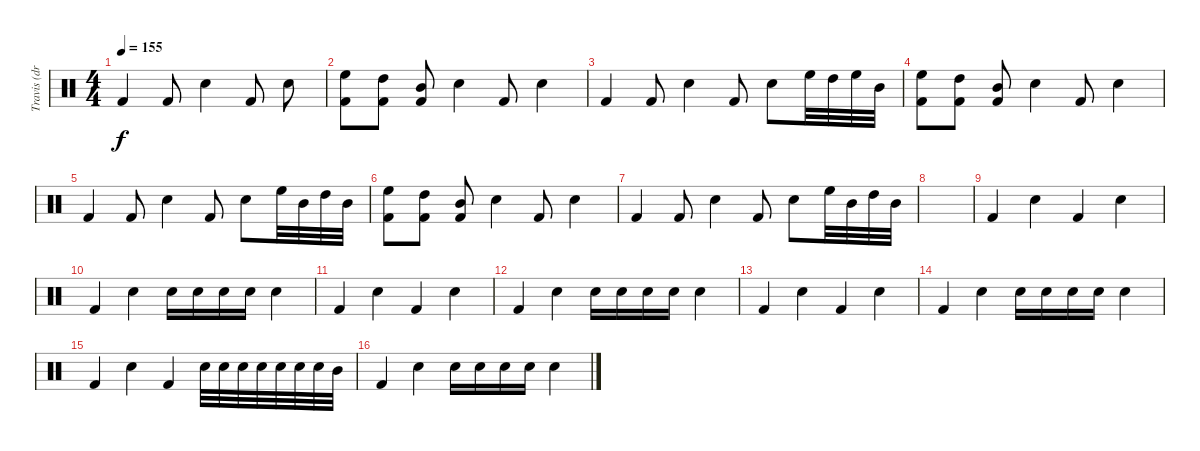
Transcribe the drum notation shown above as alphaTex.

\track ("Travis (drums)" "Travis (dr") {instrument percussion}
\staff {score}
\articulation defaults
\ts (4 4)
\tempo 155
\clef neutral
\ks c "Kick (hit) 2".4{dy f} "Kick (hit) 2".8 "Snare (hit) 2".4 "Kick (hit) 2".8 "Snare (hit) 2".8
|
("High Floor Tom (hit)" "Kick (hit) 2").8 ("High Tom (hit)" "Kick (hit) 2").8 ("Mid Tom (hit)" "Kick (hit) 2").8 "Snare (hit) 2".4 "Kick (hit) 2".8 "Snare (hit) 2".4 |
"Kick (hit) 2".4 "Kick (hit) 2".8 "Snare (hit) 2".4 "Kick (hit) 2".8 "Snare (hit) 2".8 "High Floor Tom (hit)".32 "High Tom (hit)".32 "High Floor Tom (hit)".32 "Mid Tom (hit)".32 |
("High Floor Tom (hit)" "Kick (hit) 2").8 ("High Tom (hit)" "Kick (hit) 2").8 ("Mid Tom (hit)" "Kick (hit) 2").8 "Snare (hit) 2".4 "Kick (hit) 2".8 "Snare (hit) 2".4 |
"Kick (hit) 2".4 "Kick (hit) 2".8 "Snare (hit) 2".4 "Kick (hit) 2".8 "Snare (hit) 2".8 "High Floor Tom (hit)".32 "Mid Tom (hit)".32 "High Tom (hit)".32 "Mid Tom (hit)".32 |
("High Floor Tom (hit)" "Kick (hit) 2").8 ("High Tom (hit)" "Kick (hit) 2").8 ("Mid Tom (hit)" "Kick (hit) 2").8 "Snare (hit) 2".4 "Kick (hit) 2".8 "Snare (hit) 2".4 |
"Kick (hit) 2".4 "Kick (hit) 2".8 "Snare (hit) 2".4 "Kick (hit) 2".8 "Snare (hit) 2".8 "High Floor Tom (hit)".32 "Mid Tom (hit)".32 "High Tom (hit)".32 "Mid Tom (hit)".32 |
|
"Kick (hit) 2".4 "Snare (hit) 2".4 "Kick (hit) 2".4 "Snare (hit) 2".4 |
"Kick (hit) 2".4 "Snare (hit) 2".4 "Snare (hit) 2".16 "Snare (hit) 2".16 "Snare (hit) 2".16 "Snare (hit) 2".16 "Snare (hit) 2".4 |
"Kick (hit) 2".4 "Snare (hit) 2".4 "Kick (hit) 2".4 "Snare (hit) 2".4 |
"Kick (hit) 2".4 "Snare (hit) 2".4 "Snare (hit) 2".16 "Snare (hit) 2".16 "Snare (hit) 2".16 "Snare (hit) 2".16 "Snare (hit) 2".4 |
"Kick (hit) 2".4 "Snare (hit) 2".4 "Kick (hit) 2".4 "Snare (hit) 2".4 |
"Kick (hit) 2".4 "Snare (hit) 2".4 "Snare (hit) 2".16 "Snare (hit) 2".16 "Snare (hit) 2".16 "Snare (hit) 2".16 "Snare (hit) 2".4 |
"Kick (hit) 2".4 "Snare (hit) 2".4 "Kick (hit) 2".4 "Snare (hit) 2".32 "Snare (hit) 2".32 "Snare (hit) 2".32 "Snare (hit) 2".32 "Snare (hit) 2".32 "Snare (hit) 2".32 "Snare (hit) 2".32 "Mid Tom (hit)".32 |
"Kick (hit) 2".4 "Snare (hit) 2".4 "Snare (hit) 2".16 "Snare (hit) 2".16 "Snare (hit) 2".16 "Snare (hit) 2".16 "Snare (hit) 2".4
